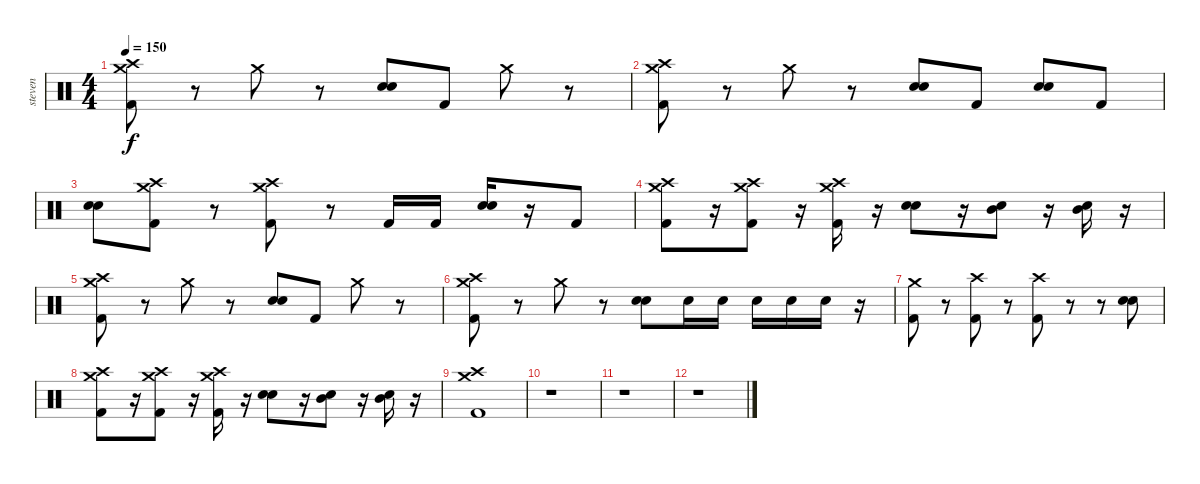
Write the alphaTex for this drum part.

\track ("steven" "steven") {instrument percussion}
\staff {score}
\articulation defaults
\ts (4 4)
\tempo 150
\clef neutral
\ks c
("Crash high (hit)" "Crash medium (hit)" "Kick (hit) 2").8{dy f} r.8 "Crash medium (hit)".8 r.8 ("Electric Snare (hit)" "Electric Snare (hit)").8 "Kick (hit) 2".8 "Crash medium (hit)".8 r.8 |
("Crash high (hit)" "Crash medium (hit)" "Kick (hit) 2").8 r.8 "Crash medium (hit)".8 r.8 ("Electric Snare (hit)" "Electric Snare (hit)").8 "Kick (hit) 2".8 ("Electric Snare (hit)" "Electric Snare (hit)").8 "Kick (hit) 2".8 |
("Electric Snare (hit)" "Electric Snare (hit)").8 ("Crash high (hit)" "Crash medium (hit)" "Kick (hit) 2").8 r.8 ("Crash high (hit)" "Crash medium (hit)" "Kick (hit) 2").8 r.8 "Kick (hit) 2".16 "Kick (hit) 2".16 ("Electric Snare (hit)" "Electric Snare (hit)").16 r.16 "Kick (hit) 2".8 |
("Crash medium (hit)" "Crash high (hit)" "Kick (hit) 2").8 r.16 ("Crash medium (hit)" "Crash high (hit)" "Kick (hit) 2").8 r.16 ("Crash medium (hit)" "Crash high (hit)" "Kick (hit) 2").16 r.16 ("Electric Snare (hit)" "Electric Snare (hit)").8 r.16 ("Mid Tom (hit)" "Electric Snare (hit)").8 r.16 ("Mid Tom (hit)" "Electric Snare (hit)").16 r.16 |
("Crash high (hit)" "Crash medium (hit)" "Kick (hit) 2").8 r.8 "Crash medium (hit)".8 r.8 ("Electric Snare (hit)" "Electric Snare (hit)").8 "Kick (hit) 2".8 "Crash medium (hit)".8 r.8 |
("Crash high (hit)" "Crash medium (hit)" "Kick (hit) 2").8 r.8 "Crash medium (hit)".8 r.8 ("Electric Snare (hit)" "Electric Snare (hit)").8 "Electric Snare (hit)".16 "Electric Snare (hit)".16 "Electric Snare (hit)".16 "Electric Snare (hit)".16 "Electric Snare (hit)".16 r.16 |
("Crash medium (hit)" "Kick (hit) 2").8 r.8 ("Crash high (hit)" "Kick (hit) 2").8 r.8 ("Crash high (hit)" "Kick (hit) 2").8 r.8 r.8 ("Electric Snare (hit)" "Electric Snare (hit)").8 |
("Crash medium (hit)" "Crash high (hit)" "Kick (hit) 2").8 r.16 ("Crash medium (hit)" "Crash high (hit)" "Kick (hit) 2").8 r.16 ("Crash medium (hit)" "Crash high (hit)" "Kick (hit) 2").16 r.16 ("Electric Snare (hit)" "Electric Snare (hit)").8 r.16 ("Mid Tom (hit)" "Electric Snare (hit)").8 r.16 ("Mid Tom (hit)" "Electric Snare (hit)").16 r.16 |
("Crash medium (hit)" "Crash high (hit)" "Kick (hit) 2").1 |
r.1 |
r.1 |
r.1
